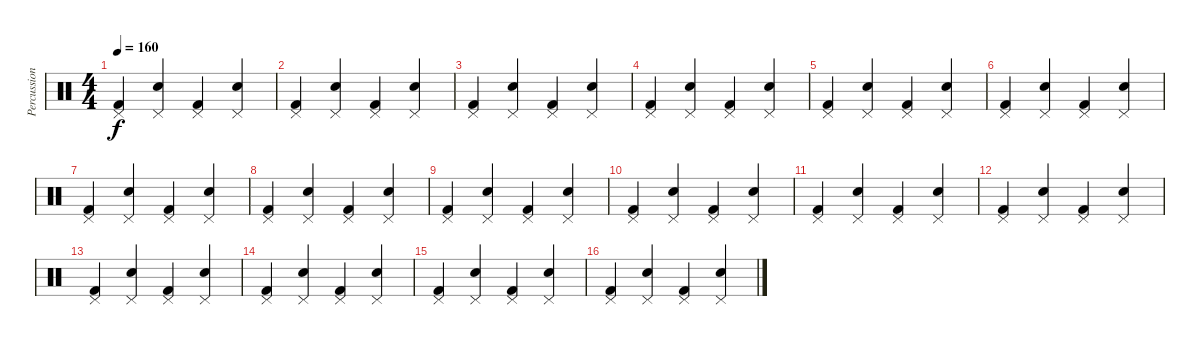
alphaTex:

\track ("Percussion" "Percussion") {instrument percussion}
\staff {score}
\articulation defaults
\ts (4 4)
\tempo 160
\clef neutral
\ks c
("Pedal Hi-Hat (hit)" "Kick (hit) 2").4{dy f} ("Pedal Hi-Hat (hit)" "Electric Snare (hit)").4 ("Pedal Hi-Hat (hit)" "Kick (hit) 2").4 ("Pedal Hi-Hat (hit)" "Electric Snare (hit)").4 |
("Pedal Hi-Hat (hit)" "Kick (hit) 2").4 ("Pedal Hi-Hat (hit)" "Electric Snare (hit)").4 ("Pedal Hi-Hat (hit)" "Kick (hit) 2").4 ("Pedal Hi-Hat (hit)" "Electric Snare (hit)").4 |
("Pedal Hi-Hat (hit)" "Kick (hit) 2").4 ("Pedal Hi-Hat (hit)" "Electric Snare (hit)").4 ("Pedal Hi-Hat (hit)" "Kick (hit) 2").4 ("Pedal Hi-Hat (hit)" "Electric Snare (hit)").4 |
("Pedal Hi-Hat (hit)" "Kick (hit) 2").4 ("Pedal Hi-Hat (hit)" "Electric Snare (hit)").4 ("Pedal Hi-Hat (hit)" "Kick (hit) 2").4 ("Pedal Hi-Hat (hit)" "Electric Snare (hit)").4 |
("Pedal Hi-Hat (hit)" "Kick (hit) 2").4 ("Pedal Hi-Hat (hit)" "Electric Snare (hit)").4 ("Pedal Hi-Hat (hit)" "Kick (hit) 2").4 ("Pedal Hi-Hat (hit)" "Electric Snare (hit)").4 |
("Pedal Hi-Hat (hit)" "Kick (hit) 2").4 ("Pedal Hi-Hat (hit)" "Electric Snare (hit)").4 ("Pedal Hi-Hat (hit)" "Kick (hit) 2").4 ("Pedal Hi-Hat (hit)" "Electric Snare (hit)").4 |
("Pedal Hi-Hat (hit)" "Kick (hit) 2").4 ("Pedal Hi-Hat (hit)" "Electric Snare (hit)").4 ("Pedal Hi-Hat (hit)" "Kick (hit) 2").4 ("Pedal Hi-Hat (hit)" "Electric Snare (hit)").4 |
("Pedal Hi-Hat (hit)" "Kick (hit) 2").4 ("Pedal Hi-Hat (hit)" "Electric Snare (hit)").4 ("Pedal Hi-Hat (hit)" "Kick (hit) 2").4 ("Pedal Hi-Hat (hit)" "Electric Snare (hit)").4 |
("Pedal Hi-Hat (hit)" "Kick (hit) 2").4 ("Pedal Hi-Hat (hit)" "Electric Snare (hit)").4 ("Pedal Hi-Hat (hit)" "Kick (hit) 2").4 ("Pedal Hi-Hat (hit)" "Electric Snare (hit)").4 |
("Pedal Hi-Hat (hit)" "Kick (hit) 2").4 ("Pedal Hi-Hat (hit)" "Electric Snare (hit)").4 ("Pedal Hi-Hat (hit)" "Kick (hit) 2").4 ("Pedal Hi-Hat (hit)" "Electric Snare (hit)").4 |
("Pedal Hi-Hat (hit)" "Kick (hit) 2").4 ("Pedal Hi-Hat (hit)" "Electric Snare (hit)").4 ("Pedal Hi-Hat (hit)" "Kick (hit) 2").4 ("Pedal Hi-Hat (hit)" "Electric Snare (hit)").4 |
("Pedal Hi-Hat (hit)" "Kick (hit) 2").4 ("Pedal Hi-Hat (hit)" "Electric Snare (hit)").4 ("Pedal Hi-Hat (hit)" "Kick (hit) 2").4 ("Pedal Hi-Hat (hit)" "Electric Snare (hit)").4 |
("Pedal Hi-Hat (hit)" "Kick (hit) 2").4 ("Pedal Hi-Hat (hit)" "Electric Snare (hit)").4 ("Pedal Hi-Hat (hit)" "Kick (hit) 2").4 ("Pedal Hi-Hat (hit)" "Electric Snare (hit)").4 |
("Pedal Hi-Hat (hit)" "Kick (hit) 2").4 ("Pedal Hi-Hat (hit)" "Electric Snare (hit)").4 ("Pedal Hi-Hat (hit)" "Kick (hit) 2").4 ("Pedal Hi-Hat (hit)" "Electric Snare (hit)").4 |
("Pedal Hi-Hat (hit)" "Kick (hit) 2").4 ("Pedal Hi-Hat (hit)" "Electric Snare (hit)").4 ("Pedal Hi-Hat (hit)" "Kick (hit) 2").4 ("Pedal Hi-Hat (hit)" "Electric Snare (hit)").4 |
("Pedal Hi-Hat (hit)" "Kick (hit) 2").4 ("Pedal Hi-Hat (hit)" "Electric Snare (hit)").4 ("Pedal Hi-Hat (hit)" "Kick (hit) 2").4 ("Pedal Hi-Hat (hit)" "Electric Snare (hit)").4
